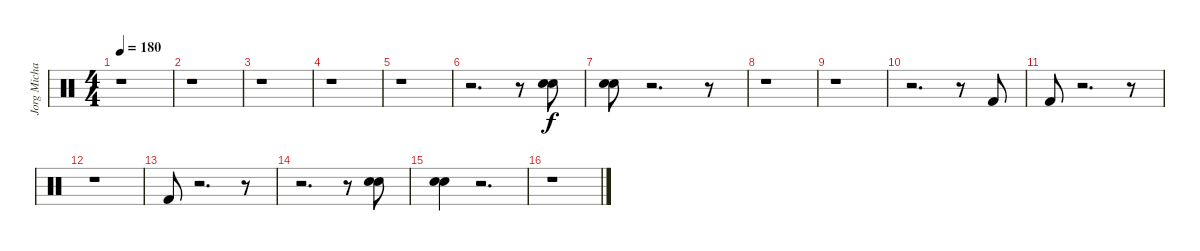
\track ("Jorg Michael" "Jorg Micha") {instrument percussion}
\staff {score}
\articulation defaults
\ts (4 4)
\tempo 180
\clef neutral
\ks c
r.1{dy f} |
r.1 |
r.1 |
r.1 |
r.1 |
r.2{d} r.8 ("Snare (hit) 2" "Electric Snare (hit)").8 |
("Snare (hit) 2" "Electric Snare (hit)").8 r.2{d} r.8 |
r.1 |
r.1 |
r.2{d} r.8 "Kick (hit) 2".8 |
"Kick (hit) 2".8 r.2{d} r.8 |
r.1 |
"Kick (hit) 2".8 r.2{d} r.8 |
r.2{d} r.8 ("Snare (hit) 2" "Electric Snare (hit)").8 |
("Snare (hit) 2" "Electric Snare (hit)").4 r.2{d} |
r.1
